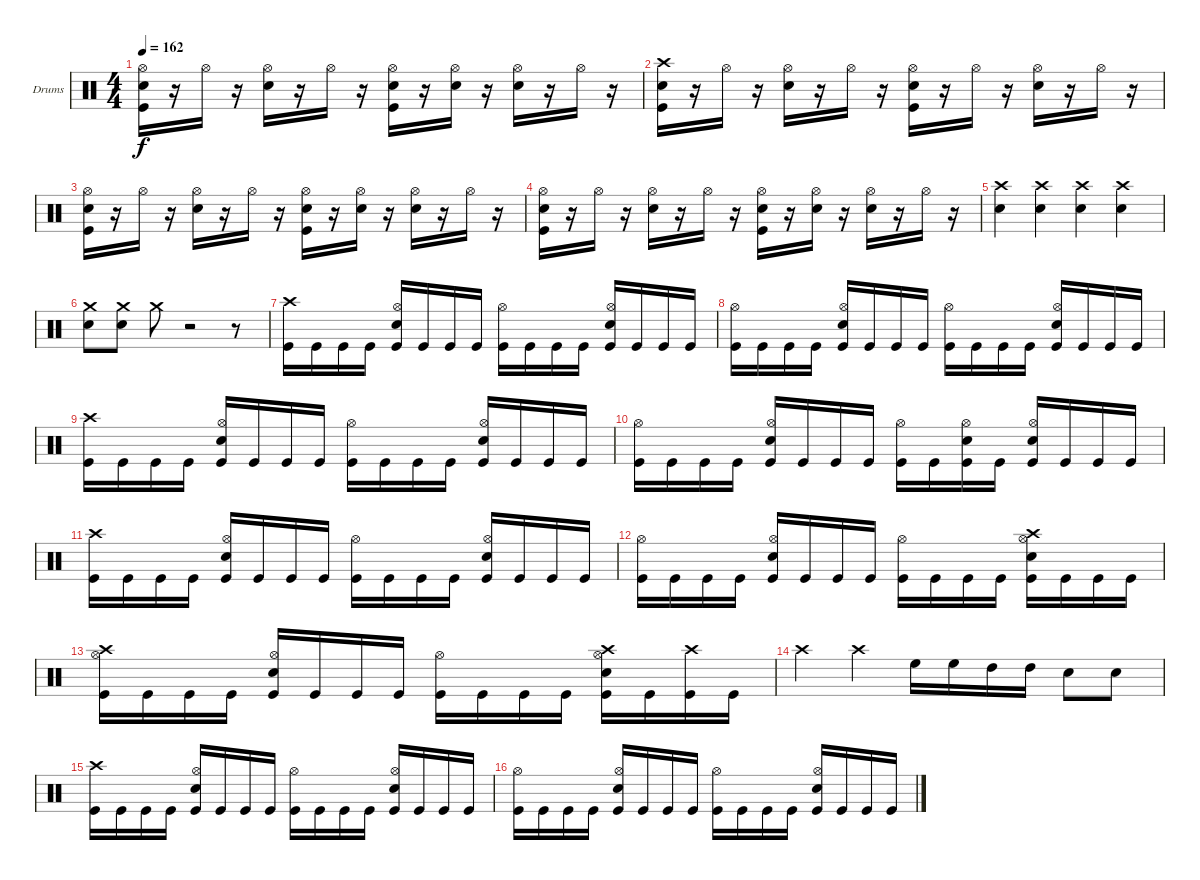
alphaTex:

\bracketExtendMode groupsimilarinstruments
\firstSystemTrackNameOrientation horizontal
\otherSystemsTrackNameOrientation horizontal
\track ("Drumkit" "Drums") {instrument percussion}
\staff {score}
\articulation defaults
\ts (4 4)
\tempo 162
\clef neutral
\ks c
("Snare (hit) 2" "Hi-Hat (open)" "Kick (hit)").16{dy f} r.16 "Hi-Hat (open)".16 r.16 ("Snare (hit) 2" "Hi-Hat (open)").16 r.16 "Hi-Hat (open)".16 r.16 ("Snare (hit) 2" "Hi-Hat (open)" "Kick (hit)").16 r.16 ("Hi-Hat (open)" "Snare (hit) 2").16 r.16 ("Snare (hit) 2" "Hi-Hat (open)").16 r.16 "Hi-Hat (open)".16 r.16 |
("Crash high (hit)" "Snare (hit) 2" "Kick (hit)").16 r.16 "Hi-Hat (open)".16 r.16 ("Snare (hit) 2" "Hi-Hat (open)").16 r.16 "Hi-Hat (open)".16 r.16 ("Snare (hit) 2" "Hi-Hat (open)" "Kick (hit)").16 r.16 "Hi-Hat (open)".16 r.16 ("Snare (hit) 2" "Hi-Hat (open)").16 r.16 "Hi-Hat (open)".16 r.16 |
("Snare (hit) 2" "Hi-Hat (open)" "Kick (hit)").16 r.16 "Hi-Hat (open)".16 r.16 ("Snare (hit) 2" "Hi-Hat (open)").16 r.16 "Hi-Hat (open)".16 r.16 ("Snare (hit) 2" "Hi-Hat (open)" "Kick (hit)").16 r.16 ("Snare (hit) 2" "Hi-Hat (open)").16 r.16 ("Snare (hit) 2" "Hi-Hat (open)").16 r.16 "Hi-Hat (open)".16 r.16 |
("Snare (hit) 2" "Hi-Hat (open)" "Kick (hit)").16 r.16 "Hi-Hat (open)".16 r.16 ("Snare (hit) 2" "Hi-Hat (open)").16 r.16 "Hi-Hat (open)".16 r.16 ("Snare (hit) 2" "Hi-Hat (open)" "Kick (hit)").16 r.16 ("Hi-Hat (open)" "Snare (hit) 2").16 r.16 ("Snare (hit) 2" "Hi-Hat (open)").16 r.16 "Hi-Hat (open)".16 r.16 |
("Crash high (hit)" "Snare (hit) 2").4 ("Crash high (hit)" "Snare (hit) 2").4 ("Crash high (hit)" "Snare (hit) 2").4 ("Crash high (hit)" "Snare (hit) 2").4 |
("Crash medium (hit)" "Snare (hit) 2").8 ("Crash medium (hit)" "Snare (hit) 2").8 "Crash medium (hit)".8 r.2 r.8 |
("Crash high (hit)" "Kick (hit)").16 "Kick (hit)".16 "Kick (hit)".16 "Kick (hit)".16 ("Kick (hit)" "Snare (hit) 2" "Hi-Hat (open)").16 "Kick (hit)".16 "Kick (hit)".16 "Kick (hit)".16 ("Kick (hit)" "Hi-Hat (open)").16 "Kick (hit)".16 "Kick (hit)".16 "Kick (hit)".16 ("Kick (hit)" "Snare (hit) 2" "Hi-Hat (open)").16 "Kick (hit)".16 "Kick (hit)".16 "Kick (hit)".16 |
("Hi-Hat (open)" "Kick (hit)").16 "Kick (hit)".16 "Kick (hit)".16 "Kick (hit)".16 ("Kick (hit)" "Snare (hit) 2" "Hi-Hat (open)").16 "Kick (hit)".16 "Kick (hit)".16 "Kick (hit)".16 ("Kick (hit)" "Hi-Hat (open)").16 "Kick (hit)".16 "Kick (hit)".16 "Kick (hit)".16 ("Kick (hit)" "Snare (hit) 2" "Hi-Hat (open)").16 "Kick (hit)".16 "Kick (hit)".16 "Kick (hit)".16 |
("Crash high (hit)" "Kick (hit)").16 "Kick (hit)".16 "Kick (hit)".16 "Kick (hit)".16 ("Kick (hit)" "Snare (hit) 2" "Hi-Hat (open)").16 "Kick (hit)".16 "Kick (hit)".16 "Kick (hit)".16 ("Kick (hit)" "Hi-Hat (open)").16 "Kick (hit)".16 "Kick (hit)".16 "Kick (hit)".16 ("Kick (hit)" "Snare (hit) 2" "Hi-Hat (open)").16 "Kick (hit)".16 "Kick (hit)".16 "Kick (hit)".16 |
("Hi-Hat (open)" "Kick (hit)").16 "Kick (hit)".16 "Kick (hit)".16 "Kick (hit)".16 ("Kick (hit)" "Snare (hit) 2" "Hi-Hat (open)").16 "Kick (hit)".16 "Kick (hit)".16 "Kick (hit)".16 ("Kick (hit)" "Hi-Hat (open)").16 "Kick (hit)".16 ("Kick (hit)" "Snare (hit) 2" "Hi-Hat (open)").16 "Kick (hit)".16 ("Kick (hit)" "Snare (hit) 2" "Hi-Hat (open)").16 "Kick (hit)".16 "Kick (hit)".16 "Kick (hit)".16 |
("Crash high (hit)" "Kick (hit)").16 "Kick (hit)".16 "Kick (hit)".16 "Kick (hit)".16 ("Kick (hit)" "Snare (hit) 2" "Hi-Hat (open)").16 "Kick (hit)".16 "Kick (hit)".16 "Kick (hit)".16 ("Kick (hit)" "Hi-Hat (open)").16 "Kick (hit)".16 "Kick (hit)".16 "Kick (hit)".16 ("Kick (hit)" "Snare (hit) 2" "Hi-Hat (open)").16 "Kick (hit)".16 "Kick (hit)".16 "Kick (hit)".16 |
("Hi-Hat (open)" "Kick (hit)").16 "Kick (hit)".16 "Kick (hit)".16 "Kick (hit)".16 ("Kick (hit)" "Snare (hit) 2" "Hi-Hat (open)").16 "Kick (hit)".16 "Kick (hit)".16 "Kick (hit)".16 ("Kick (hit)" "Hi-Hat (open)").16 "Kick (hit)".16 "Kick (hit)".16 "Kick (hit)".16 ("Crash high (hit)" "Kick (hit)" "Snare (hit) 2" "Hi-Hat (open)").16 "Kick (hit)".16 "Kick (hit)".16 "Kick (hit)".16 |
("Crash high (hit)" "Hi-Hat (open)" "Kick (hit)").16 "Kick (hit)".16 "Kick (hit)".16 "Kick (hit)".16 ("Kick (hit)" "Snare (hit) 2" "Hi-Hat (open)").16 "Kick (hit)".16 "Kick (hit)".16 "Kick (hit)".16 ("Kick (hit)" "Hi-Hat (open)").16 "Kick (hit)".16 "Kick (hit)".16 "Kick (hit)".16 ("Crash high (hit)" "Kick (hit)" "Snare (hit) 2" "Hi-Hat (open)").16 "Kick (hit)".16 ("Crash high (hit)" "Kick (hit)").16 "Kick (hit)".16 |
"Crash high (hit)".4 "Crash high (hit)".4 "High Floor Tom (hit)".16 "High Floor Tom (hit)".16 "High Tom (hit)".16 "High Tom (hit)".16 "Snare (hit) 2".8 "Snare (hit) 2".8 |
("Crash high (hit)" "Kick (hit)").16 "Kick (hit)".16 "Kick (hit)".16 "Kick (hit)".16 ("Kick (hit)" "Snare (hit) 2" "Hi-Hat (open)").16 "Kick (hit)".16 "Kick (hit)".16 "Kick (hit)".16 ("Kick (hit)" "Hi-Hat (open)").16 "Kick (hit)".16 "Kick (hit)".16 "Kick (hit)".16 ("Kick (hit)" "Snare (hit) 2" "Hi-Hat (open)").16 "Kick (hit)".16 "Kick (hit)".16 "Kick (hit)".16 |
("Hi-Hat (open)" "Kick (hit)").16 "Kick (hit)".16 "Kick (hit)".16 "Kick (hit)".16 ("Kick (hit)" "Snare (hit) 2" "Hi-Hat (open)").16 "Kick (hit)".16 "Kick (hit)".16 "Kick (hit)".16 ("Kick (hit)" "Hi-Hat (open)").16 "Kick (hit)".16 "Kick (hit)".16 "Kick (hit)".16 ("Kick (hit)" "Snare (hit) 2" "Hi-Hat (open)").16 "Kick (hit)".16 "Kick (hit)".16 "Kick (hit)".16
